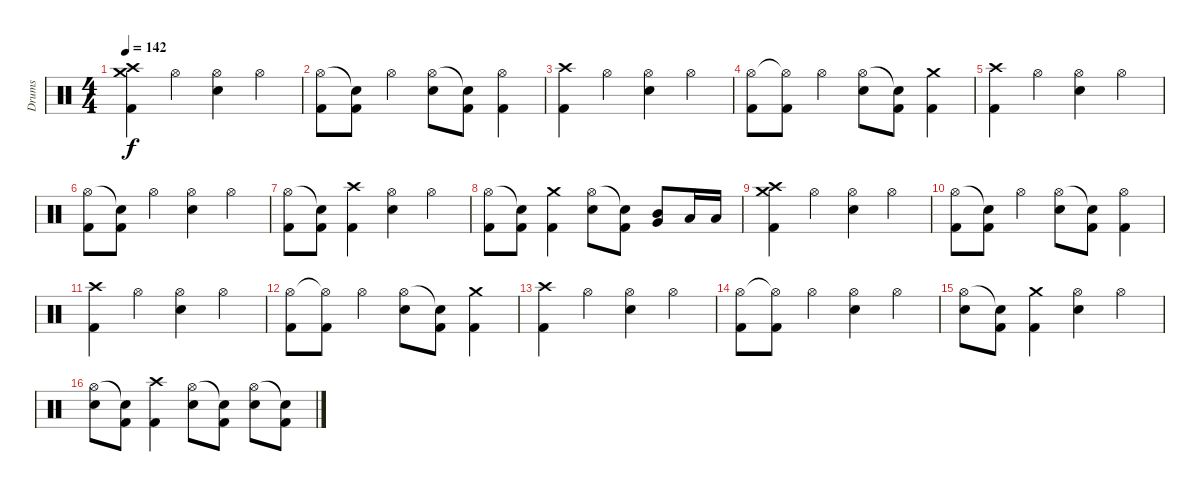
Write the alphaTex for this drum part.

\track ("Drums" "Drums") {instrument percussion}
\staff {score}
\articulation defaults
\ts (4 4)
\tempo 142
\clef neutral
\ks c
("Crash high (hit)" "Crash medium (hit)" "Kick (hit) 2").4{dy f volume 14} "Hi-Hat (open)".4 ("Hi-Hat (open)" "Snare (hit) 2").4 "Hi-Hat (open)".4 |
("Hi-Hat (open)" "Kick (hit) 2").8 ("Snare (hit)"{t} "Kick (hit) 2").8 "Hi-Hat (open)".4 ("Hi-Hat (open)" "Snare (hit) 2").8 ("Snare (hit)"{t} "Kick (hit) 2").8 ("Hi-Hat (open)" "Kick (hit) 2").4 |
("Crash high (hit)" "Kick (hit) 2").4 "Hi-Hat (open)".4 ("Hi-Hat (open)" "Snare (hit) 2").4 "Hi-Hat (open)".4 |
("Hi-Hat (open)" "Kick (hit) 2").8 ("Hi-Hat (open)"{t} "Kick (hit) 2").8 "Hi-Hat (open)".4 ("Hi-Hat (open)" "Snare (hit) 2").8 ("Snare (hit)"{t} "Kick (hit) 2").8 ("Crash medium (hit)" "Kick (hit) 2").4 |
("Crash high (hit)" "Kick (hit) 2").4 "Hi-Hat (open)".4 ("Hi-Hat (open)" "Snare (hit) 2").4 "Hi-Hat (open)".4 |
("Hi-Hat (open)" "Kick (hit) 2").8 ("Snare (hit)"{t} "Kick (hit) 2").8 "Hi-Hat (open)".4 ("Hi-Hat (open)" "Snare (hit) 2").4 "Hi-Hat (open)".4 |
("Hi-Hat (open)" "Kick (hit) 2").8 ("Snare (hit)"{t} "Kick (hit) 2").8 ("Crash high (hit)" "Kick (hit) 2").4 ("Hi-Hat (open)" "Snare (hit) 2").4 "Hi-Hat (open)".4 |
("Hi-Hat (open)" "Kick (hit) 2").8 ("Snare (hit)"{t} "Kick (hit) 2").8 ("Crash medium (hit)" "Kick (hit) 2").4 ("Hi-Hat (open)" "Snare (hit) 2").8 ("Snare (hit)"{t} "Kick (hit) 2").8 ("Mid Tom (hit)" "Very Low Tom (hit)").8 "Low Tom (hit)".16 "Low Tom (hit)".16 |
("Crash high (hit)" "Crash medium (hit)" "Kick (hit) 2").4 "Hi-Hat (open)".4 ("Hi-Hat (open)" "Snare (hit) 2").4 "Hi-Hat (open)".4 |
("Hi-Hat (open)" "Kick (hit) 2").8 ("Snare (hit)"{t} "Kick (hit) 2").8 "Hi-Hat (open)".4 ("Hi-Hat (open)" "Snare (hit) 2").8 ("Snare (hit)"{t} "Kick (hit) 2").8 ("Hi-Hat (open)" "Kick (hit) 2").4 |
("Crash high (hit)" "Kick (hit) 2").4 "Hi-Hat (open)".4 ("Hi-Hat (open)" "Snare (hit) 2").4 "Hi-Hat (open)".4 |
("Hi-Hat (open)" "Kick (hit) 2").8 ("Hi-Hat (open)"{t} "Kick (hit) 2").8 "Hi-Hat (open)".4 ("Hi-Hat (open)" "Snare (hit) 2").8 ("Snare (hit)"{t} "Kick (hit) 2").8 ("Crash medium (hit)" "Kick (hit) 2").4 |
("Crash high (hit)" "Kick (hit) 2").4 "Hi-Hat (open)".4 ("Hi-Hat (open)" "Snare (hit) 2").4 "Hi-Hat (open)".4 |
("Hi-Hat (open)" "Kick (hit) 2").8 ("Hi-Hat (open)"{t} "Kick (hit) 2").8 "Hi-Hat (open)".4 ("Hi-Hat (open)" "Snare (hit) 2").4 "Hi-Hat (open)".4 |
("Hi-Hat (open)" "Snare (hit) 2").8 ("Snare (hit)"{t} "Kick (hit) 2").8 ("Crash medium (hit)" "Kick (hit) 2").4 ("Hi-Hat (open)" "Snare (hit) 2").4 "Hi-Hat (open)".4 |
("Hi-Hat (open)" "Snare (hit) 2").8 ("Snare (hit)"{t} "Kick (hit) 2").8 ("Crash high (hit)" "Kick (hit) 2").4 ("Hi-Hat (open)" "Snare (hit) 2").8 ("Snare (hit)"{t} "Kick (hit) 2").8 ("Hi-Hat (open)" "Snare (hit) 2").8 ("Snare (hit)"{t} "Kick (hit) 2").8
